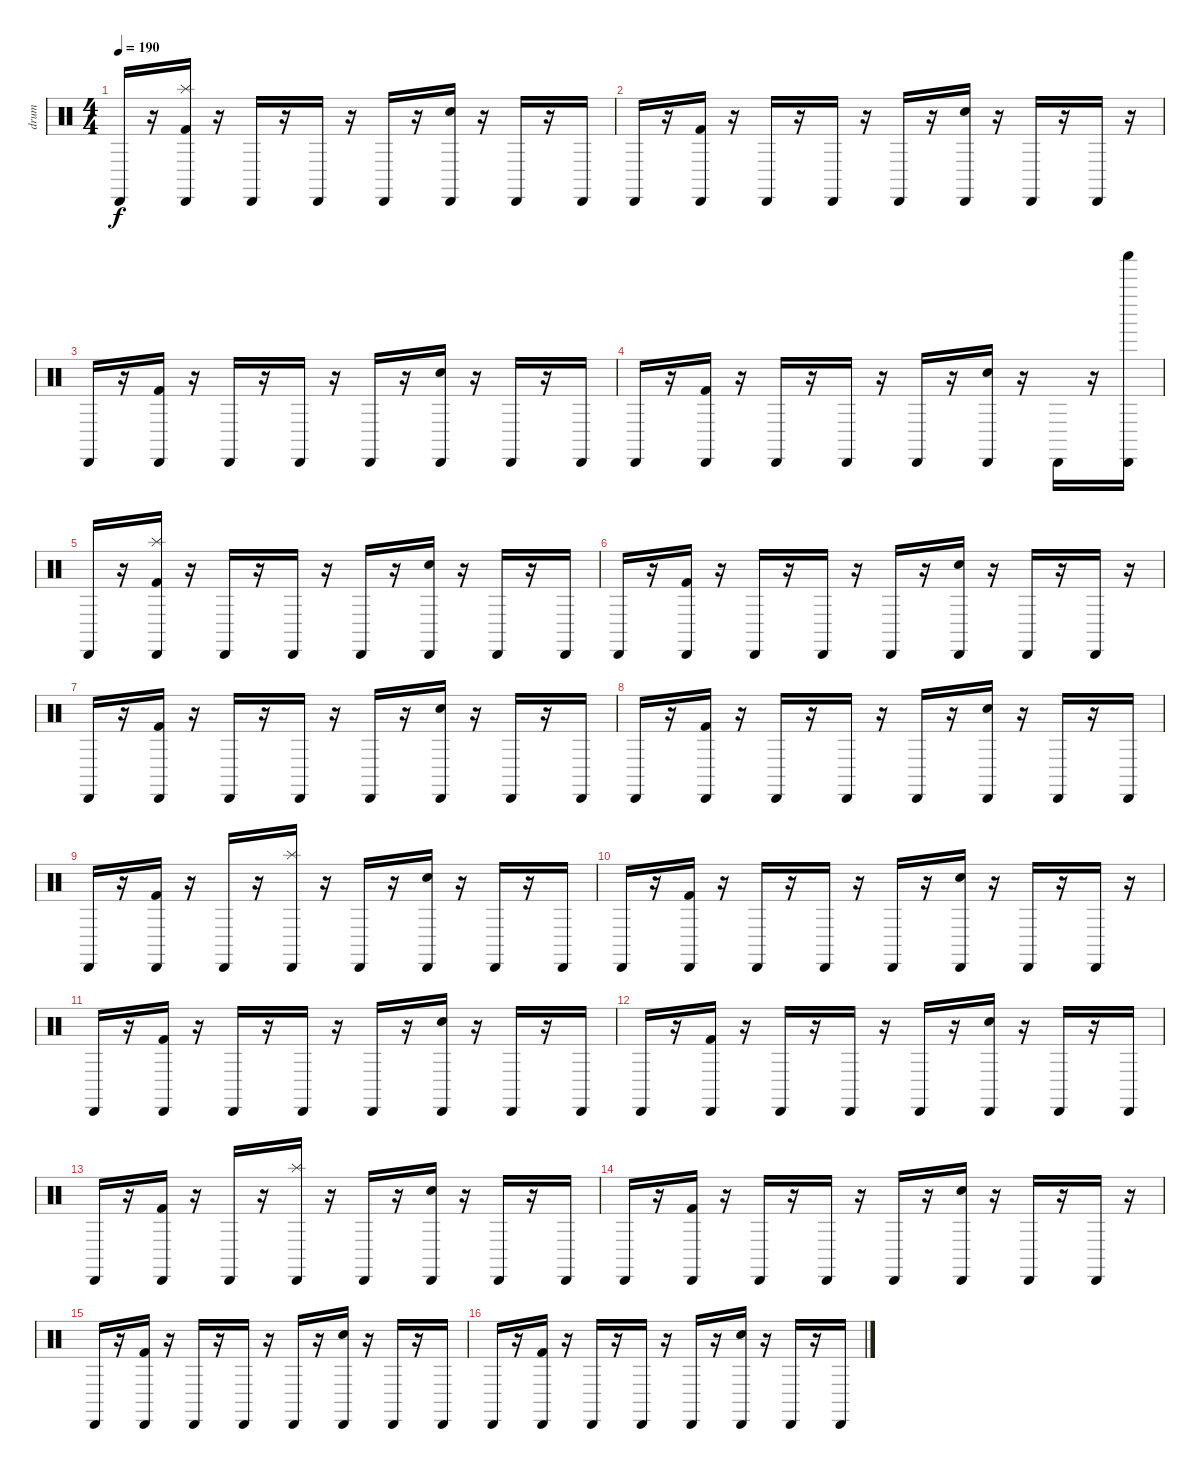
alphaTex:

\track ("drum" "drum") {instrument percussion}
\staff {score}
\articulation defaults
\ts (4 4)
\tempo 190
\clef neutral
\ks c "Cabasa (hit)".16{dy f}
r.16 ("Cabasa (hit)" "Kick (hit) 2" "Splash (hit)").16 r.16 "Cabasa (hit)".16 r.16 "Cabasa (hit)".16 r.16 "Cabasa (hit)".16 r.16 ("Cabasa (hit)" "Snare (hit) 2").16 r.16 "Cabasa (hit)".16 r.16 "Cabasa (hit)".16 |
"Cabasa (hit)".16 r.16 ("Cabasa (hit)" "Kick (hit) 2").16 r.16 "Cabasa (hit)".16 r.16 "Cabasa (hit)".16 r.16 "Cabasa (hit)".16 r.16 ("Cabasa (hit)" "Snare (hit) 2").16 r.16 "Cabasa (hit)".16 r.16 "Cabasa (hit)".16 r.16 |
"Cabasa (hit)".16 r.16 ("Cabasa (hit)" "Kick (hit) 2").16 r.16 "Cabasa (hit)".16 r.16 "Cabasa (hit)".16 r.16 "Cabasa (hit)".16 r.16 ("Cabasa (hit)" "Snare (hit) 2").16 r.16 "Cabasa (hit)".16 r.16 "Cabasa (hit)".16 |
"Cabasa (hit)".16 r.16 ("Cabasa (hit)" "Kick (hit) 2").16 r.16 "Cabasa (hit)".16 r.16 "Cabasa (hit)".16 r.16 "Cabasa (hit)".16 r.16 ("Cabasa (hit)" "Snare (hit) 2").16 r.16 "Cabasa (hit)".16 r.16 ("Cabasa (hit)" "Shaker (hit)").16 |
"Cabasa (hit)".16 r.16 ("Cabasa (hit)" "Kick (hit) 2" "Splash (hit)").16 r.16 "Cabasa (hit)".16 r.16 "Cabasa (hit)".16 r.16 "Cabasa (hit)".16 r.16 ("Cabasa (hit)" "Snare (hit) 2").16 r.16 "Cabasa (hit)".16 r.16 "Cabasa (hit)".16 |
"Cabasa (hit)".16 r.16 ("Cabasa (hit)" "Kick (hit) 2").16 r.16 "Cabasa (hit)".16 r.16 "Cabasa (hit)".16 r.16 "Cabasa (hit)".16 r.16 ("Cabasa (hit)" "Snare (hit) 2").16 r.16 "Cabasa (hit)".16 r.16 "Cabasa (hit)".16 r.16 |
"Cabasa (hit)".16 r.16 ("Cabasa (hit)" "Kick (hit) 2").16 r.16 "Cabasa (hit)".16 r.16 "Cabasa (hit)".16 r.16 "Cabasa (hit)".16 r.16 ("Cabasa (hit)" "Snare (hit) 2").16 r.16 "Cabasa (hit)".16 r.16 "Cabasa (hit)".16 |
"Cabasa (hit)".16 r.16 ("Cabasa (hit)" "Kick (hit) 2").16 r.16 "Cabasa (hit)".16 r.16 "Cabasa (hit)".16 r.16 "Cabasa (hit)".16 r.16 ("Cabasa (hit)" "Snare (hit) 2").16 r.16 "Cabasa (hit)".16 r.16 "Cabasa (hit)".16 |
"Cabasa (hit)".16 r.16 ("Cabasa (hit)" "Kick (hit) 2").16 r.16 "Cabasa (hit)".16 r.16 ("Cabasa (hit)" "Splash (hit)").16 r.16 "Cabasa (hit)".16 r.16 ("Cabasa (hit)" "Snare (hit) 2").16 r.16 "Cabasa (hit)".16 r.16 "Cabasa (hit)".16 |
"Cabasa (hit)".16 r.16 ("Cabasa (hit)" "Kick (hit) 2").16 r.16 "Cabasa (hit)".16 r.16 "Cabasa (hit)".16 r.16 "Cabasa (hit)".16 r.16 ("Cabasa (hit)" "Snare (hit) 2").16 r.16 "Cabasa (hit)".16 r.16 "Cabasa (hit)".16 r.16 |
"Cabasa (hit)".16 r.16 ("Cabasa (hit)" "Kick (hit) 2").16 r.16 "Cabasa (hit)".16 r.16 "Cabasa (hit)".16 r.16 "Cabasa (hit)".16 r.16 ("Cabasa (hit)" "Snare (hit) 2").16 r.16 "Cabasa (hit)".16 r.16 "Cabasa (hit)".16 |
"Cabasa (hit)".16 r.16 ("Cabasa (hit)" "Kick (hit) 2").16 r.16 "Cabasa (hit)".16 r.16 "Cabasa (hit)".16 r.16 "Cabasa (hit)".16 r.16 ("Cabasa (hit)" "Snare (hit) 2").16 r.16 "Cabasa (hit)".16 r.16 "Cabasa (hit)".16 |
"Cabasa (hit)".16 r.16 ("Cabasa (hit)" "Kick (hit) 2").16 r.16 "Cabasa (hit)".16 r.16 ("Cabasa (hit)" "Splash (hit)").16 r.16 "Cabasa (hit)".16 r.16 ("Cabasa (hit)" "Snare (hit) 2").16 r.16 "Cabasa (hit)".16 r.16 "Cabasa (hit)".16 |
"Cabasa (hit)".16 r.16 ("Cabasa (hit)" "Kick (hit) 2").16 r.16 "Cabasa (hit)".16 r.16 "Cabasa (hit)".16 r.16 "Cabasa (hit)".16 r.16 ("Cabasa (hit)" "Snare (hit) 2").16 r.16 "Cabasa (hit)".16 r.16 "Cabasa (hit)".16 r.16 |
"Cabasa (hit)".16 r.16 ("Cabasa (hit)" "Kick (hit) 2").16 r.16 "Cabasa (hit)".16 r.16 "Cabasa (hit)".16 r.16 "Cabasa (hit)".16 r.16 ("Cabasa (hit)" "Snare (hit) 2").16 r.16 "Cabasa (hit)".16 r.16 "Cabasa (hit)".16 |
"Cabasa (hit)".16 r.16 ("Cabasa (hit)" "Kick (hit) 2").16 r.16 "Cabasa (hit)".16 r.16 "Cabasa (hit)".16 r.16 "Cabasa (hit)".16 r.16 ("Cabasa (hit)" "Snare (hit) 2").16 r.16 "Cabasa (hit)".16 r.16 "Cabasa (hit)".16
